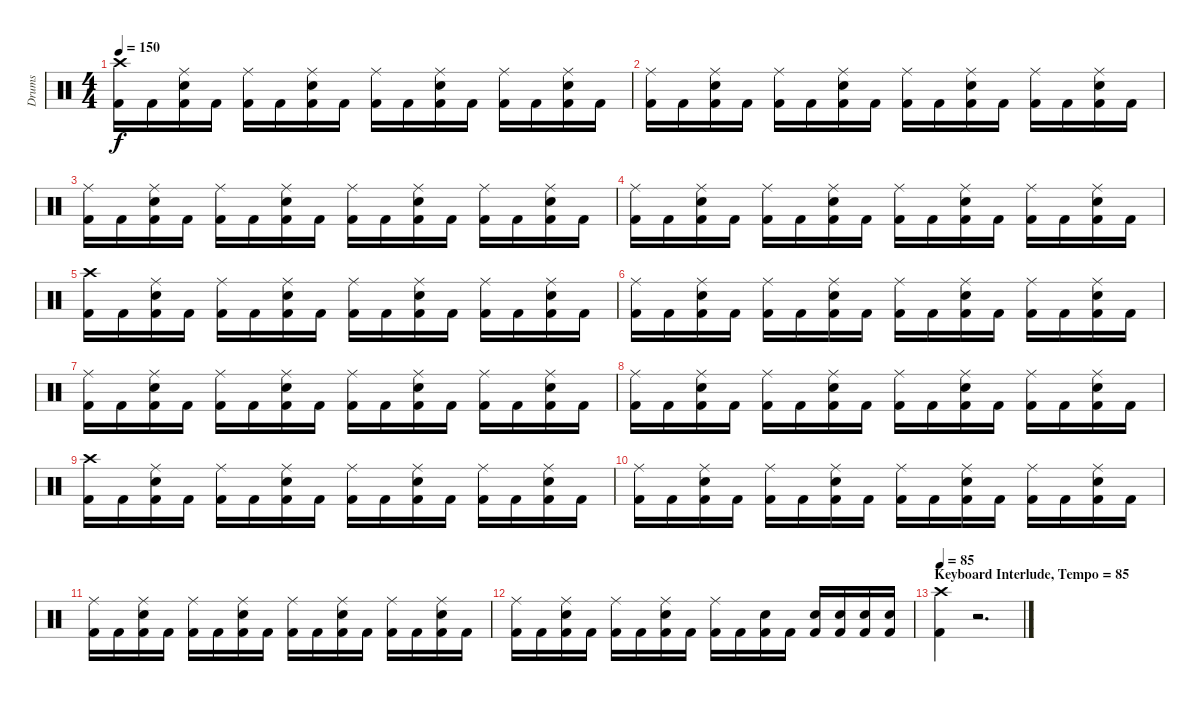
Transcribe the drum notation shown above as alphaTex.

\track ("Drums" "Drums") {instrument percussion}
\staff {score}
\articulation defaults
\ts (4 4)
\tempo 150
\clef neutral
\ks c
("Crash high (hit)" "Kick (hit) 2").16{dy f} "Kick (hit) 2".16 ("Ride (middle)" "Electric Snare (hit)" "Kick (hit) 2").16 "Kick (hit) 2".16 ("Ride (middle)" "Kick (hit) 2").16 "Kick (hit) 2".16 ("Ride (middle)" "Electric Snare (hit)" "Kick (hit) 2").16 "Kick (hit) 2".16 ("Ride (middle)" "Kick (hit) 2").16 "Kick (hit) 2".16 ("Ride (middle)" "Electric Snare (hit)" "Kick (hit) 2").16 "Kick (hit) 2".16 ("Ride (middle)" "Kick (hit) 2").16 "Kick (hit) 2".16 ("Ride (middle)" "Electric Snare (hit)" "Kick (hit) 2").16 "Kick (hit) 2".16 |
("Ride (middle)" "Kick (hit) 2").16 "Kick (hit) 2".16 ("Ride (middle)" "Electric Snare (hit)" "Kick (hit) 2").16 "Kick (hit) 2".16 ("Ride (middle)" "Kick (hit) 2").16 "Kick (hit) 2".16 ("Ride (middle)" "Electric Snare (hit)" "Kick (hit) 2").16 "Kick (hit) 2".16 ("Ride (middle)" "Kick (hit) 2").16 "Kick (hit) 2".16 ("Ride (middle)" "Electric Snare (hit)" "Kick (hit) 2").16 "Kick (hit) 2".16 ("Ride (middle)" "Kick (hit) 2").16 "Kick (hit) 2".16 ("Ride (middle)" "Electric Snare (hit)" "Kick (hit) 2").16 "Kick (hit) 2".16 |
("Ride (middle)" "Kick (hit) 2").16 "Kick (hit) 2".16 ("Ride (middle)" "Electric Snare (hit)" "Kick (hit) 2").16 "Kick (hit) 2".16 ("Ride (middle)" "Kick (hit) 2").16 "Kick (hit) 2".16 ("Ride (middle)" "Electric Snare (hit)" "Kick (hit) 2").16 "Kick (hit) 2".16 ("Ride (middle)" "Kick (hit) 2").16 "Kick (hit) 2".16 ("Ride (middle)" "Electric Snare (hit)" "Kick (hit) 2").16 "Kick (hit) 2".16 ("Ride (middle)" "Kick (hit) 2").16 "Kick (hit) 2".16 ("Ride (middle)" "Electric Snare (hit)" "Kick (hit) 2").16 "Kick (hit) 2".16 |
("Ride (middle)" "Kick (hit) 2").16 "Kick (hit) 2".16 ("Ride (middle)" "Electric Snare (hit)" "Kick (hit) 2").16 "Kick (hit) 2".16 ("Ride (middle)" "Kick (hit) 2").16 "Kick (hit) 2".16 ("Ride (middle)" "Electric Snare (hit)" "Kick (hit) 2").16 "Kick (hit) 2".16 ("Ride (middle)" "Kick (hit) 2").16 "Kick (hit) 2".16 ("Ride (middle)" "Electric Snare (hit)" "Kick (hit) 2").16 "Kick (hit) 2".16 ("Ride (middle)" "Kick (hit) 2").16 "Kick (hit) 2".16 ("Ride (middle)" "Electric Snare (hit)" "Kick (hit) 2").16 "Kick (hit) 2".16 |
("Crash high (hit)" "Kick (hit) 2").16 "Kick (hit) 2".16 ("Ride (middle)" "Electric Snare (hit)" "Kick (hit) 2").16 "Kick (hit) 2".16 ("Ride (middle)" "Kick (hit) 2").16 "Kick (hit) 2".16 ("Ride (middle)" "Electric Snare (hit)" "Kick (hit) 2").16 "Kick (hit) 2".16 ("Ride (middle)" "Kick (hit) 2").16 "Kick (hit) 2".16 ("Ride (middle)" "Electric Snare (hit)" "Kick (hit) 2").16 "Kick (hit) 2".16 ("Ride (middle)" "Kick (hit) 2").16 "Kick (hit) 2".16 ("Ride (middle)" "Electric Snare (hit)" "Kick (hit) 2").16 "Kick (hit) 2".16 |
("Ride (middle)" "Kick (hit) 2").16 "Kick (hit) 2".16 ("Ride (middle)" "Electric Snare (hit)" "Kick (hit) 2").16 "Kick (hit) 2".16 ("Ride (middle)" "Kick (hit) 2").16 "Kick (hit) 2".16 ("Ride (middle)" "Electric Snare (hit)" "Kick (hit) 2").16 "Kick (hit) 2".16 ("Ride (middle)" "Kick (hit) 2").16 "Kick (hit) 2".16 ("Ride (middle)" "Electric Snare (hit)" "Kick (hit) 2").16 "Kick (hit) 2".16 ("Ride (middle)" "Kick (hit) 2").16 "Kick (hit) 2".16 ("Ride (middle)" "Electric Snare (hit)" "Kick (hit) 2").16 "Kick (hit) 2".16 |
("Ride (middle)" "Kick (hit) 2").16 "Kick (hit) 2".16 ("Ride (middle)" "Electric Snare (hit)" "Kick (hit) 2").16 "Kick (hit) 2".16 ("Ride (middle)" "Kick (hit) 2").16 "Kick (hit) 2".16 ("Ride (middle)" "Electric Snare (hit)" "Kick (hit) 2").16 "Kick (hit) 2".16 ("Ride (middle)" "Kick (hit) 2").16 "Kick (hit) 2".16 ("Ride (middle)" "Electric Snare (hit)" "Kick (hit) 2").16 "Kick (hit) 2".16 ("Ride (middle)" "Kick (hit) 2").16 "Kick (hit) 2".16 ("Ride (middle)" "Electric Snare (hit)" "Kick (hit) 2").16 "Kick (hit) 2".16 |
("Ride (middle)" "Kick (hit) 2").16 "Kick (hit) 2".16 ("Ride (middle)" "Electric Snare (hit)" "Kick (hit) 2").16 "Kick (hit) 2".16 ("Ride (middle)" "Kick (hit) 2").16 "Kick (hit) 2".16 ("Ride (middle)" "Electric Snare (hit)" "Kick (hit) 2").16 "Kick (hit) 2".16 ("Ride (middle)" "Kick (hit) 2").16 "Kick (hit) 2".16 ("Ride (middle)" "Electric Snare (hit)" "Kick (hit) 2").16 "Kick (hit) 2".16 ("Ride (middle)" "Kick (hit) 2").16 "Kick (hit) 2".16 ("Ride (middle)" "Electric Snare (hit)" "Kick (hit) 2").16 "Kick (hit) 2".16 |
("Crash high (hit)" "Kick (hit) 2").16 "Kick (hit) 2".16 ("Ride (middle)" "Electric Snare (hit)" "Kick (hit) 2").16 "Kick (hit) 2".16 ("Ride (middle)" "Kick (hit) 2").16 "Kick (hit) 2".16 ("Ride (middle)" "Electric Snare (hit)" "Kick (hit) 2").16 "Kick (hit) 2".16 ("Ride (middle)" "Kick (hit) 2").16 "Kick (hit) 2".16 ("Ride (middle)" "Electric Snare (hit)" "Kick (hit) 2").16 "Kick (hit) 2".16 ("Ride (middle)" "Kick (hit) 2").16 "Kick (hit) 2".16 ("Ride (middle)" "Electric Snare (hit)" "Kick (hit) 2").16 "Kick (hit) 2".16 |
("Ride (middle)" "Kick (hit) 2").16 "Kick (hit) 2".16 ("Ride (middle)" "Electric Snare (hit)" "Kick (hit) 2").16 "Kick (hit) 2".16 ("Ride (middle)" "Kick (hit) 2").16 "Kick (hit) 2".16 ("Ride (middle)" "Electric Snare (hit)" "Kick (hit) 2").16 "Kick (hit) 2".16 ("Ride (middle)" "Kick (hit) 2").16 "Kick (hit) 2".16 ("Ride (middle)" "Electric Snare (hit)" "Kick (hit) 2").16 "Kick (hit) 2".16 ("Ride (middle)" "Kick (hit) 2").16 "Kick (hit) 2".16 ("Ride (middle)" "Electric Snare (hit)" "Kick (hit) 2").16 "Kick (hit) 2".16 |
("Ride (middle)" "Kick (hit) 2").16 "Kick (hit) 2".16 ("Ride (middle)" "Electric Snare (hit)" "Kick (hit) 2").16 "Kick (hit) 2".16 ("Ride (middle)" "Kick (hit) 2").16 "Kick (hit) 2".16 ("Ride (middle)" "Electric Snare (hit)" "Kick (hit) 2").16 "Kick (hit) 2".16 ("Ride (middle)" "Kick (hit) 2").16 "Kick (hit) 2".16 ("Ride (middle)" "Electric Snare (hit)" "Kick (hit) 2").16 "Kick (hit) 2".16 ("Ride (middle)" "Kick (hit) 2").16 "Kick (hit) 2".16 ("Ride (middle)" "Electric Snare (hit)" "Kick (hit) 2").16 "Kick (hit) 2".16 |
("Ride (middle)" "Kick (hit) 2").16 "Kick (hit) 2".16 ("Ride (middle)" "Electric Snare (hit)" "Kick (hit) 2").16 "Kick (hit) 2".16 ("Ride (middle)" "Kick (hit) 2").16 "Kick (hit) 2".16 ("Ride (middle)" "Electric Snare (hit)" "Kick (hit) 2").16 "Kick (hit) 2".16 ("Ride (middle)" "Kick (hit) 2").16 "Kick (hit) 2".16 ("Electric Snare (hit)" "Kick (hit) 2").16 "Kick (hit) 2".16 ("Electric Snare (hit)" "Kick (hit) 2").16 ("Electric Snare (hit)" "Kick (hit) 2").16 ("Electric Snare (hit)" "Kick (hit) 2").16 ("Electric Snare (hit)" "Kick (hit) 2").16 |
\section ("" "Keyboard Interlude, Tempo = 85")
\tempo 85
("Crash high (hit)" "Kick (hit) 2").4 r.2{d}
